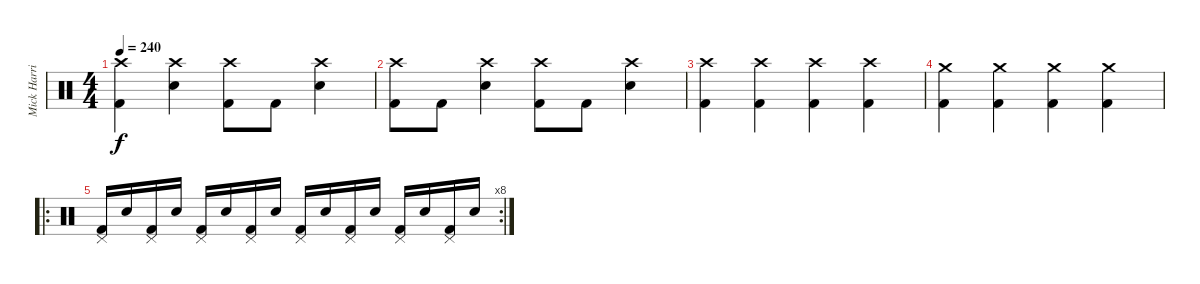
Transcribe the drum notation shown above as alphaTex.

\track ("Mick Harris" "Mick Harri") {instrument percussion}
\staff {score}
\articulation defaults
\ts (4 4)
\tempo 240
\clef neutral
\ks c
("Crash high (hit)" "Kick (hit) 2").4{dy f} ("Crash high (hit)" "Snare (hit) 2").4 ("Crash high (hit)" "Kick (hit) 2").8 "Kick (hit) 2".8 ("Crash high (hit)" "Snare (hit) 2").4 |
("Crash high (hit)" "Kick (hit) 2").8 "Kick (hit) 2".8 ("Crash high (hit)" "Snare (hit) 2").4 ("Crash high (hit)" "Kick (hit) 2").8 "Kick (hit) 2".8 ("Crash high (hit)" "Snare (hit) 2").4 |
("Crash high (hit)" "Kick (hit) 2").4 ("Crash high (hit)" "Kick (hit) 2").4 ("Crash high (hit)" "Kick (hit) 2").4 ("Crash high (hit)" "Kick (hit) 2").4 |
("Crash medium (hit)" "Kick (hit) 2").4 ("Crash medium (hit)" "Kick (hit) 2").4 ("Crash medium (hit)" "Kick (hit) 2").4 ("Crash medium (hit)" "Kick (hit) 2").4 |
\ro
\rc 8
("Pedal Hi-Hat (hit)" "Kick (hit) 2").16 "Snare (hit) 2".16 ("Pedal Hi-Hat (hit)" "Kick (hit) 2").16 "Snare (hit) 2".16 ("Pedal Hi-Hat (hit)" "Kick (hit) 2").16 "Snare (hit) 2".16 ("Pedal Hi-Hat (hit)" "Kick (hit) 2").16 "Snare (hit) 2".16 ("Pedal Hi-Hat (hit)" "Kick (hit) 2").16 "Snare (hit) 2".16 ("Pedal Hi-Hat (hit)" "Kick (hit) 2").16 "Snare (hit) 2".16 ("Pedal Hi-Hat (hit)" "Kick (hit) 2").16 "Snare (hit) 2".16 ("Pedal Hi-Hat (hit)" "Kick (hit) 2").16 "Snare (hit) 2".16
